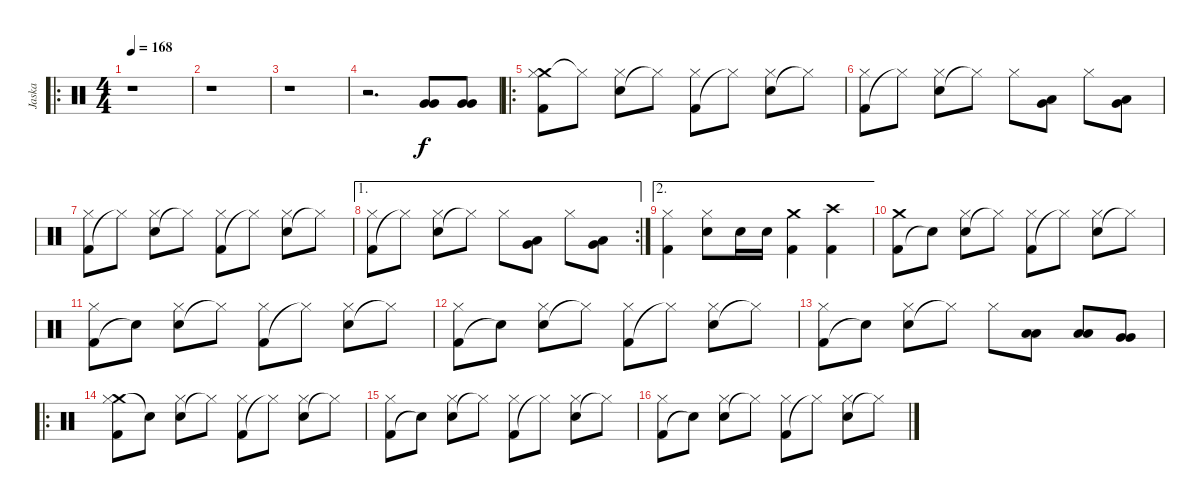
\track ("Jaska" "Jaska") {instrument percussion}
\staff {score}
\articulation defaults
\ro
\ts (4 4)
\tempo 168
\clef neutral
\ks c
r.1{dy f} |
r.1 |
r.1 |
r.2{d} ("Very Low Tom (hit)" "Very Low Tom (hit)").8 ("Very Low Tom (hit)" "Very Low Tom (hit)").8 |
\ro
("Crash medium (hit)" "Kick (hit) 2" "Hi-Hat (closed)").8 "Hi-Hat (closed)"{t}.8 ("Electric Snare (hit)" "Hi-Hat (closed)").8 "Hi-Hat (closed)"{t}.8 ("Kick (hit) 2" "Hi-Hat (closed)").8 "Hi-Hat (closed)"{t}.8 ("Electric Snare (hit)" "Hi-Hat (closed)").8 "Hi-Hat (closed)"{t}.8 |
("Kick (hit) 2" "Hi-Hat (closed)").8 "Hi-Hat (closed)"{t}.8 ("Electric Snare (hit)" "Hi-Hat (closed)").8 "Hi-Hat (closed)"{t}.8 "Hi-Hat (closed)".8 ("Low Tom (hit)" "Very Low Tom (hit)").8 "Hi-Hat (closed)".8 ("Low Tom (hit)" "Very Low Tom (hit)").8 |
("Kick (hit) 2" "Hi-Hat (closed)").8 "Hi-Hat (closed)"{t}.8 ("Electric Snare (hit)" "Hi-Hat (closed)").8 "Hi-Hat (closed)"{t}.8 ("Kick (hit) 2" "Hi-Hat (closed)").8 "Hi-Hat (closed)"{t}.8 ("Electric Snare (hit)" "Hi-Hat (closed)").8 "Hi-Hat (closed)"{t}.8 |
\ae 1
\rc 2
("Kick (hit) 2" "Hi-Hat (closed)").8 "Hi-Hat (closed)"{t}.8 ("Electric Snare (hit)" "Hi-Hat (closed)").8 "Hi-Hat (closed)"{t}.8 "Hi-Hat (closed)".8 ("Low Tom (hit)" "Very Low Tom (hit)").8 "Hi-Hat (closed)".8 ("Low Tom (hit)" "Very Low Tom (hit)").8 |
\ae 2
("Kick (hit) 2" "Hi-Hat (closed)").4 ("Electric Snare (hit)" "Hi-Hat (closed)").8 "Electric Snare (hit)".16 "Electric Snare (hit)".16 ("Crash medium (hit)" "Kick (hit) 2").4 ("Crash high (hit)" "Kick (hit) 2").4 |
("Kick (hit) 2" "Crash medium (hit)").8 "Snare (hit)"{t}.8 ("Electric Snare (hit)" "Hi-Hat (closed)").8 "Hi-Hat (closed)"{t}.8 ("Kick (hit) 2" "Hi-Hat (closed)").8 "Hi-Hat (closed)"{t}.8 ("Electric Snare (hit)" "Hi-Hat (closed)").8 "Hi-Hat (closed)"{t}.8 |
("Kick (hit) 2" "Hi-Hat (closed)").8 "Snare (hit)"{t}.8 ("Electric Snare (hit)" "Hi-Hat (closed)").8 "Hi-Hat (closed)"{t}.8 ("Kick (hit) 2" "Hi-Hat (closed)").8 "Hi-Hat (closed)"{t}.8 ("Electric Snare (hit)" "Hi-Hat (closed)").8 "Hi-Hat (closed)"{t}.8 |
("Kick (hit) 2" "Hi-Hat (closed)").8 "Snare (hit)"{t}.8 ("Electric Snare (hit)" "Hi-Hat (closed)").8 "Hi-Hat (closed)"{t}.8 ("Kick (hit) 2" "Hi-Hat (closed)").8 "Hi-Hat (closed)"{t}.8 ("Electric Snare (hit)" "Hi-Hat (closed)").8 "Hi-Hat (closed)"{t}.8 |
("Kick (hit) 2" "Hi-Hat (closed)").8 "Snare (hit)"{t}.8 ("Electric Snare (hit)" "Hi-Hat (closed)").8 "Hi-Hat (closed)"{t}.8 "Hi-Hat (closed)".8 ("Low Tom (hit)" "Low Tom (hit)").8 ("Low Tom (hit)" "Low Tom (hit)").8 ("Very Low Tom (hit)" "Very Low Tom (hit)").8 |
\ro
("Crash medium (hit)" "Kick (hit) 2" "Hi-Hat (closed)").8 "Snare (hit)"{t}.8 ("Electric Snare (hit)" "Hi-Hat (closed)").8 "Hi-Hat (closed)"{t}.8 ("Kick (hit) 2" "Hi-Hat (closed)").8 "Hi-Hat (closed)"{t}.8 ("Electric Snare (hit)" "Hi-Hat (closed)").8 "Hi-Hat (closed)"{t}.8 |
("Kick (hit) 2" "Hi-Hat (closed)").8 "Snare (hit)"{t}.8 ("Electric Snare (hit)" "Hi-Hat (closed)").8 "Hi-Hat (closed)"{t}.8 ("Kick (hit) 2" "Hi-Hat (closed)").8 "Hi-Hat (closed)"{t}.8 ("Electric Snare (hit)" "Hi-Hat (closed)").8 "Hi-Hat (closed)"{t}.8 |
("Kick (hit) 2" "Hi-Hat (closed)").8 "Snare (hit)"{t}.8 ("Electric Snare (hit)" "Hi-Hat (closed)").8 "Hi-Hat (closed)"{t}.8 ("Kick (hit) 2" "Hi-Hat (closed)").8 "Hi-Hat (closed)"{t}.8 ("Electric Snare (hit)" "Hi-Hat (closed)").8 "Hi-Hat (closed)"{t}.8
